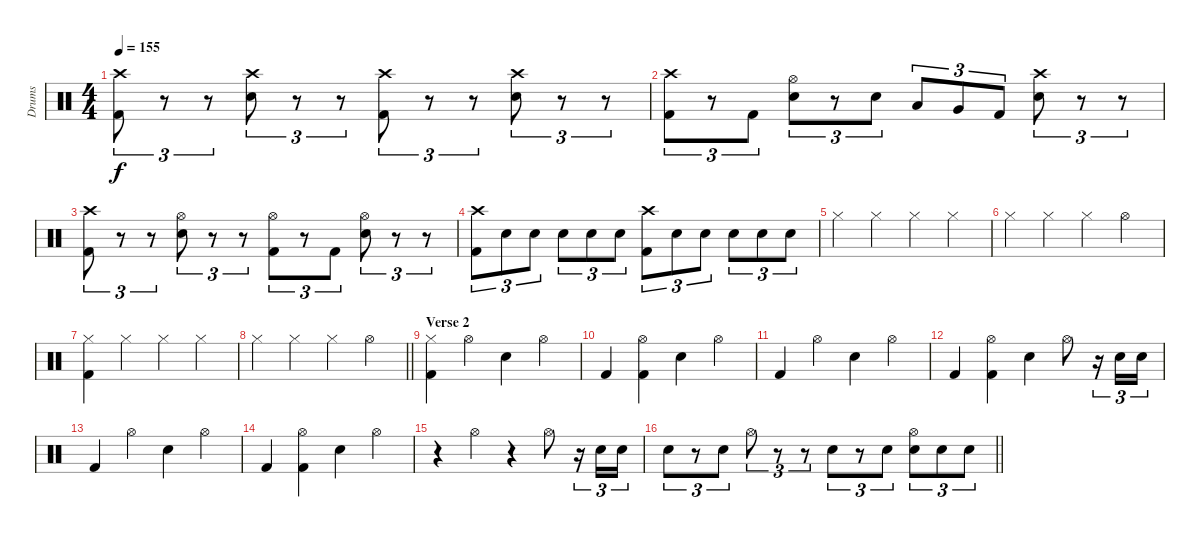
\track ("Drums" "Drums") {instrument percussion}
\staff {score}
\articulation defaults
\ts (4 4)
\tempo 155
\clef neutral
\ks c
("Crash high (hit)" "Kick (hit) 2").8{tu (3 2) dy f} r.8{tu (3 2)} r.8{tu (3 2)} ("Crash high (hit)" "Snare (hit) 2").8{tu (3 2)} r.8{tu (3 2)} r.8{tu (3 2)} ("Crash high (hit)" "Kick (hit) 2").8{tu (3 2)} r.8{tu (3 2)} r.8{tu (3 2)} ("Crash high (hit)" "Snare (hit) 2").8{tu (3 2)} r.8{tu (3 2)} r.8{tu (3 2)} |
("Crash high (hit)" "Kick (hit) 2").8{tu (3 2)} r.8{tu (3 2)} "Kick (hit) 2".8{tu (3 2)} ("Hi-Hat (open)" "Snare (hit) 2").8{tu (3 2)} r.8{tu (3 2)} "Snare (hit) 2".8{tu (3 2)} "Low Tom (hit)".8{tu (3 2)} "Very Low Tom (hit)".8{tu (3 2)} "Kick (hit) 2".8{tu (3 2)} ("Crash high (hit)" "Snare (hit) 2").8{tu (3 2)} r.8{tu (3 2)} r.8{tu (3 2)} |
("Crash high (hit)" "Kick (hit) 2").8{tu (3 2)} r.8{tu (3 2)} r.8{tu (3 2)} ("Hi-Hat (open)" "Snare (hit) 2").8{tu (3 2)} r.8{tu (3 2)} r.8{tu (3 2)} ("Hi-Hat (open)" "Kick (hit) 2").8{tu (3 2)} r.8{tu (3 2)} "Kick (hit) 2".8{tu (3 2)} ("Hi-Hat (open)" "Snare (hit) 2").8{tu (3 2)} r.8{tu (3 2)} r.8{tu (3 2)} |
("Crash high (hit)" "Kick (hit) 2").8{tu (3 2)} "Snare (hit) 2".8{tu (3 2)} "Snare (hit) 2".8{tu (3 2)} "Snare (hit) 2".8{tu (3 2)} "Snare (hit) 2".8{tu (3 2)} "Snare (hit) 2".8{tu (3 2)} ("Crash high (hit)" "Kick (hit) 2").8{tu (3 2)} "Snare (hit) 2".8{tu (3 2)} "Snare (hit) 2".8{tu (3 2)} "Snare (hit) 2".8{tu (3 2)} "Snare (hit) 2".8{tu (3 2)} "Snare (hit) 2".8{tu (3 2)} |
"Hi-Hat (closed)".4 "Hi-Hat (closed)".4 "Hi-Hat (closed)".4 "Hi-Hat (closed)".4 |
"Hi-Hat (closed)".4 "Hi-Hat (closed)".4 "Hi-Hat (closed)".4 "Hi-Hat (open)".4 |
("Hi-Hat (closed)" "Kick (hit) 2").4 "Hi-Hat (closed)".4 "Hi-Hat (closed)".4 "Hi-Hat (closed)".4 |
\barLineRight lightlight "Hi-Hat (closed)".4 "Hi-Hat (closed)".4 "Hi-Hat (closed)".4 "Hi-Hat (open)".4
|
\section ("" "Verse 2")
("Hi-Hat (closed)" "Kick (hit) 2").4 "Hi-Hat (open)".4 "Snare (hit) 2".4 "Hi-Hat (open)".4 |
"Kick (hit) 2".4 ("Hi-Hat (open)" "Kick (hit) 2").4 "Snare (hit) 2".4 "Hi-Hat (open)".4 |
"Kick (hit) 2".4 "Hi-Hat (open)".4 "Snare (hit) 2".4 "Hi-Hat (open)".4 |
"Kick (hit) 2".4 ("Hi-Hat (open)" "Kick (hit) 2").4 "Snare (hit) 2".4 "Hi-Hat (open)".8 r.16{tu (3 2)} "Snare (hit) 2".16{tu (3 2)} "Snare (hit) 2".16{tu (3 2)} |
"Kick (hit) 2".4 "Hi-Hat (open)".4 "Snare (hit) 2".4 "Hi-Hat (open)".4 |
"Kick (hit) 2".4 ("Hi-Hat (open)" "Kick (hit) 2").4 "Snare (hit) 2".4 "Hi-Hat (open)".4 |
r.4 "Hi-Hat (open)".4 r.4 "Hi-Hat (open)".8 r.16{tu (3 2)} "Snare (hit) 2".16{tu (3 2)} "Snare (hit) 2".16{tu (3 2)} |
\barLineRight lightlight "Snare (hit) 2".8{tu (3 2)}
r.8{tu (3 2)} "Snare (hit) 2".8{tu (3 2)} "Hi-Hat (open)".8{tu (3 2)} r.8{tu (3 2)} r.8{tu (3 2)} "Snare (hit) 2".8{tu (3 2)} r.8{tu (3 2)} "Snare (hit) 2".8{tu (3 2)} ("Hi-Hat (open)" "Snare (hit) 2").8{tu (3 2)} "Snare (hit) 2".8{tu (3 2)} "Snare (hit) 2".8{tu (3 2)}
